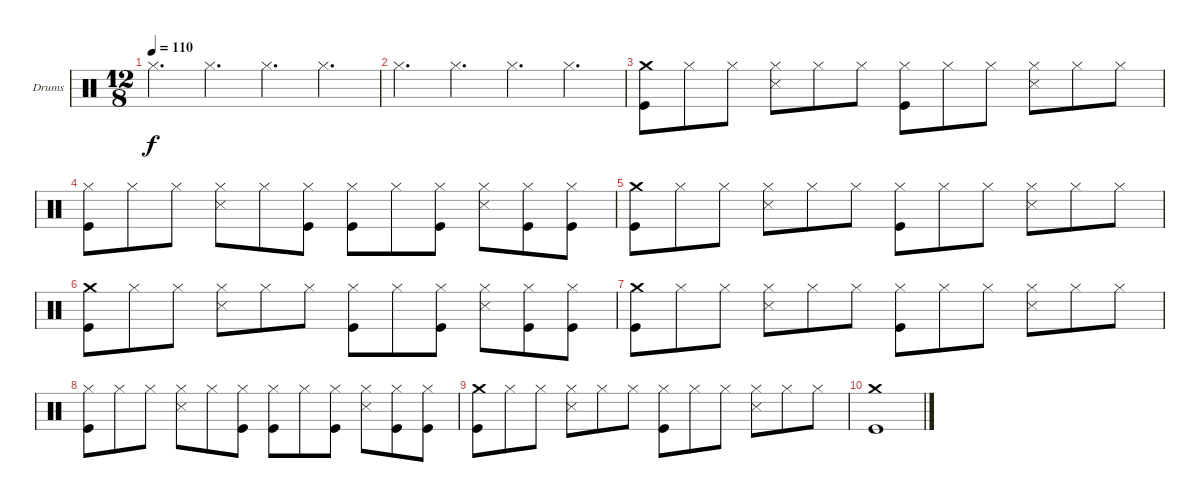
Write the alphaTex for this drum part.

\defaultSystemsLayout 4
\bracketExtendMode groupsimilarinstruments
\firstSystemTrackNameOrientation horizontal
\otherSystemsTrackNameOrientation horizontal
\track ("Drumkit" "Drums") {instrument percussion}
\staff {score}
\articulation defaults
\ts (12 8)
\tempo 110
\clef neutral
\ks c "Hi-Hat (closed)".4{d dy f} "Hi-Hat (closed)".4{d} "Hi-Hat (closed)".4{d} "Hi-Hat (closed)".4{d}
|
"Hi-Hat (closed)".4{d} "Hi-Hat (closed)".4{d} "Hi-Hat (closed)".4{d} "Hi-Hat (closed)".4{d} |
("Kick (hit)" "Crash medium (hit)").8 "Hi-Hat (closed)".8 "Hi-Hat (closed)".8 ("Snare (side stick) 3" "Hi-Hat (closed)").8 "Hi-Hat (closed)".8 "Hi-Hat (closed)".8 ("Kick (hit)" "Hi-Hat (closed)").8 "Hi-Hat (closed)".8 "Hi-Hat (closed)".8 ("Snare (side stick) 3" "Hi-Hat (closed)").8 "Hi-Hat (closed)".8 "Hi-Hat (closed)".8 |
("Kick (hit)" "Hi-Hat (closed)").8 "Hi-Hat (closed)".8 "Hi-Hat (closed)".8 ("Snare (side stick) 3" "Hi-Hat (closed)").8 "Hi-Hat (closed)".8 ("Hi-Hat (closed)" "Kick (hit)").8 ("Kick (hit)" "Hi-Hat (closed)").8 "Hi-Hat (closed)".8 ("Hi-Hat (closed)" "Kick (hit)").8 ("Snare (side stick) 3" "Hi-Hat (closed)").8 ("Hi-Hat (closed)" "Kick (hit)").8 ("Hi-Hat (closed)" "Kick (hit)").8 |
("Kick (hit)" "Crash medium (hit)").8 "Hi-Hat (closed)".8 "Hi-Hat (closed)".8 ("Snare (side stick) 3" "Hi-Hat (closed)").8 "Hi-Hat (closed)".8 "Hi-Hat (closed)".8 ("Kick (hit)" "Hi-Hat (closed)").8 "Hi-Hat (closed)".8 "Hi-Hat (closed)".8 ("Snare (side stick) 3" "Hi-Hat (closed)").8 "Hi-Hat (closed)".8 "Hi-Hat (closed)".8 |
("Kick (hit)" "Crash medium (hit)").8 "Hi-Hat (closed)".8 "Hi-Hat (closed)".8 ("Snare (side stick) 3" "Hi-Hat (closed)").8 "Hi-Hat (closed)".8 "Hi-Hat (closed)".8 ("Kick (hit)" "Hi-Hat (closed)").8 "Hi-Hat (closed)".8 ("Hi-Hat (closed)" "Kick (hit)").8 ("Snare (side stick) 3" "Hi-Hat (closed)").8 ("Hi-Hat (closed)" "Kick (hit)").8 ("Hi-Hat (closed)" "Kick (hit)").8 |
("Kick (hit)" "Crash medium (hit)").8 "Hi-Hat (closed)".8 "Hi-Hat (closed)".8 ("Snare (side stick) 3" "Hi-Hat (closed)").8 "Hi-Hat (closed)".8 "Hi-Hat (closed)".8 ("Kick (hit)" "Hi-Hat (closed)").8 "Hi-Hat (closed)".8 "Hi-Hat (closed)".8 ("Snare (side stick) 3" "Hi-Hat (closed)").8 "Hi-Hat (closed)".8 "Hi-Hat (closed)".8 |
("Kick (hit)" "Hi-Hat (closed)").8 "Hi-Hat (closed)".8 "Hi-Hat (closed)".8 ("Snare (side stick) 3" "Hi-Hat (closed)").8 "Hi-Hat (closed)".8 ("Hi-Hat (closed)" "Kick (hit)").8 ("Kick (hit)" "Hi-Hat (closed)").8 "Hi-Hat (closed)".8 ("Hi-Hat (closed)" "Kick (hit)").8 ("Snare (side stick) 3" "Hi-Hat (closed)").8 ("Hi-Hat (closed)" "Kick (hit)").8 ("Hi-Hat (closed)" "Kick (hit)").8 |
("Kick (hit)" "Crash medium (hit)").8 "Hi-Hat (closed)".8 "Hi-Hat (closed)".8 ("Snare (side stick) 3" "Hi-Hat (closed)").8 "Hi-Hat (closed)".8 "Hi-Hat (closed)".8 ("Kick (hit)" "Hi-Hat (closed)").8 "Hi-Hat (closed)".8 "Hi-Hat (closed)".8 ("Snare (side stick) 3" "Hi-Hat (closed)").8 "Hi-Hat (closed)".8 "Hi-Hat (closed)".8 |
("Kick (hit)" "Crash medium (hit)").1
